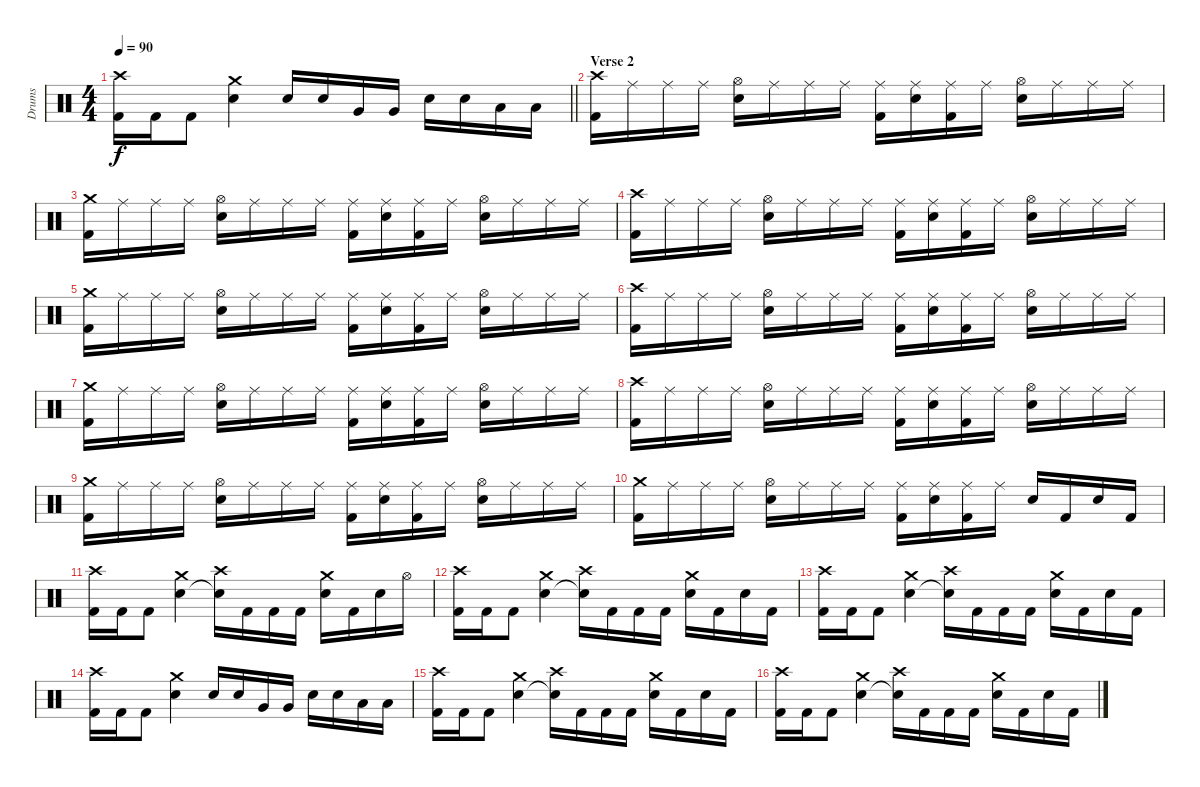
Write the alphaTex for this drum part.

\track ("Drums" "Drums") {instrument percussion}
\staff {score}
\articulation defaults
\ts (4 4)
\tempo 90
\clef neutral
\barLineRight lightlight
\ks c
("Kick (hit) 2" "Crash high (hit)").16{dy f} "Kick (hit) 2".16 "Kick (hit) 2".8 ("Snare (hit) 2" "Crash medium (hit)").4 "Snare (hit) 2".16 "Snare (hit) 2".16 "Very Low Tom (hit)".16 "Very Low Tom (hit)".16 "Snare (hit) 2".16 "Snare (hit) 2".16 "Low Floor Tom (hit)".16 "Low Floor Tom (hit)".16 |
\section ("" "Verse 2")
("Crash high (hit)" "Kick (hit) 2").16 "Ride (middle)".16 "Ride (middle)".16 "Ride (middle)".16 ("Hi-Hat (open)" "Snare (hit) 2").16 "Ride (middle)".16 "Ride (middle)".16 "Ride (middle)".16 ("Ride (middle)" "Kick (hit) 2").16 ("Ride (middle)" "Snare (hit) 2").16 ("Ride (middle)" "Kick (hit) 2").16 "Ride (middle)".16 ("Hi-Hat (open)" "Snare (hit) 2").16 "Ride (middle)".16 "Ride (middle)".16 "Ride (middle)".16 |
("Crash medium (hit)" "Kick (hit) 2").16 "Ride (middle)".16 "Ride (middle)".16 "Ride (middle)".16 ("Hi-Hat (open)" "Snare (hit) 2").16 "Ride (middle)".16 "Ride (middle)".16 "Ride (middle)".16 ("Ride (middle)" "Kick (hit) 2").16 ("Ride (middle)" "Snare (hit) 2").16 ("Ride (middle)" "Kick (hit) 2").16 "Ride (middle)".16 ("Hi-Hat (open)" "Snare (hit) 2").16 "Ride (middle)".16 "Ride (middle)".16 "Ride (middle)".16 |
("Crash high (hit)" "Kick (hit) 2").16 "Ride (middle)".16 "Ride (middle)".16 "Ride (middle)".16 ("Hi-Hat (open)" "Snare (hit) 2").16 "Ride (middle)".16 "Ride (middle)".16 "Ride (middle)".16 ("Ride (middle)" "Kick (hit) 2").16 ("Ride (middle)" "Snare (hit) 2").16 ("Ride (middle)" "Kick (hit) 2").16 "Ride (middle)".16 ("Hi-Hat (open)" "Snare (hit) 2").16 "Ride (middle)".16 "Ride (middle)".16 "Ride (middle)".16 |
("Crash medium (hit)" "Kick (hit) 2").16 "Ride (middle)".16 "Ride (middle)".16 "Ride (middle)".16 ("Hi-Hat (open)" "Snare (hit) 2").16 "Ride (middle)".16 "Ride (middle)".16 "Ride (middle)".16 ("Ride (middle)" "Kick (hit) 2").16 ("Ride (middle)" "Snare (hit) 2").16 ("Ride (middle)" "Kick (hit) 2").16 "Ride (middle)".16 ("Hi-Hat (open)" "Snare (hit) 2").16 "Ride (middle)".16 "Ride (middle)".16 "Ride (middle)".16 |
("Crash high (hit)" "Kick (hit) 2").16 "Ride (middle)".16 "Ride (middle)".16 "Ride (middle)".16 ("Hi-Hat (open)" "Snare (hit) 2").16 "Ride (middle)".16 "Ride (middle)".16 "Ride (middle)".16 ("Ride (middle)" "Kick (hit) 2").16 ("Ride (middle)" "Snare (hit) 2").16 ("Ride (middle)" "Kick (hit) 2").16 "Ride (middle)".16 ("Hi-Hat (open)" "Snare (hit) 2").16 "Ride (middle)".16 "Ride (middle)".16 "Ride (middle)".16 |
("Crash medium (hit)" "Kick (hit) 2").16 "Ride (middle)".16 "Ride (middle)".16 "Ride (middle)".16 ("Hi-Hat (open)" "Snare (hit) 2").16 "Ride (middle)".16 "Ride (middle)".16 "Ride (middle)".16 ("Ride (middle)" "Kick (hit) 2").16 ("Ride (middle)" "Snare (hit) 2").16 ("Ride (middle)" "Kick (hit) 2").16 "Ride (middle)".16 ("Hi-Hat (open)" "Snare (hit) 2").16 "Ride (middle)".16 "Ride (middle)".16 "Ride (middle)".16 |
("Crash high (hit)" "Kick (hit) 2").16 "Ride (middle)".16 "Ride (middle)".16 "Ride (middle)".16 ("Hi-Hat (open)" "Snare (hit) 2").16 "Ride (middle)".16 "Ride (middle)".16 "Ride (middle)".16 ("Ride (middle)" "Kick (hit) 2").16 ("Ride (middle)" "Snare (hit) 2").16 ("Ride (middle)" "Kick (hit) 2").16 "Ride (middle)".16 ("Hi-Hat (open)" "Snare (hit) 2").16 "Ride (middle)".16 "Ride (middle)".16 "Ride (middle)".16 |
("Crash medium (hit)" "Kick (hit) 2").16 "Ride (middle)".16 "Ride (middle)".16 "Ride (middle)".16 ("Hi-Hat (open)" "Snare (hit) 2").16 "Ride (middle)".16 "Ride (middle)".16 "Ride (middle)".16 ("Ride (middle)" "Kick (hit) 2").16 ("Ride (middle)" "Snare (hit) 2").16 ("Ride (middle)" "Kick (hit) 2").16 "Ride (middle)".16 ("Hi-Hat (open)" "Snare (hit) 2").16 "Ride (middle)".16 "Ride (middle)".16 "Ride (middle)".16 |
("Crash medium (hit)" "Kick (hit) 2").16 "Ride (middle)".16 "Ride (middle)".16 "Ride (middle)".16 ("Hi-Hat (open)" "Snare (hit) 2").16 "Ride (middle)".16 "Ride (middle)".16 "Ride (middle)".16 ("Ride (middle)" "Kick (hit) 2").16 ("Ride (middle)" "Snare (hit) 2").16 ("Ride (middle)" "Kick (hit) 2").16 "Ride (middle)".16 "Snare (hit) 2".16 "Kick (hit) 2".16 "Snare (hit) 2".16 "Kick (hit) 2".16 |
("Kick (hit) 2" "Crash high (hit)").16 "Kick (hit) 2".16 "Kick (hit) 2".8 ("Snare (hit) 2" "Crash medium (hit)").4 ("Snare (hit)"{t} "Crash high (hit)").16 "Kick (hit) 2".16 "Kick (hit) 2".16 "Kick (hit) 2".16 ("Snare (hit) 2" "Crash medium (hit)").16 "Kick (hit) 2".16 "Snare (hit) 2".16 "Hi-Hat (open)".16 |
("Kick (hit) 2" "Crash high (hit)").16 "Kick (hit) 2".16 "Kick (hit) 2".8 ("Snare (hit) 2" "Crash medium (hit)").4 ("Snare (hit)"{t} "Crash high (hit)").16 "Kick (hit) 2".16 "Kick (hit) 2".16 "Kick (hit) 2".16 ("Snare (hit) 2" "Crash medium (hit)").16 "Kick (hit) 2".16 "Snare (hit) 2".16 "Kick (hit) 2".16 |
("Kick (hit) 2" "Crash high (hit)").16 "Kick (hit) 2".16 "Kick (hit) 2".8 ("Snare (hit) 2" "Crash medium (hit)").4 ("Snare (hit)"{t} "Crash high (hit)").16 "Kick (hit) 2".16 "Kick (hit) 2".16 "Kick (hit) 2".16 ("Snare (hit) 2" "Crash medium (hit)").16 "Kick (hit) 2".16 "Snare (hit) 2".16 "Kick (hit) 2".16 |
("Kick (hit) 2" "Crash high (hit)").16 "Kick (hit) 2".16 "Kick (hit) 2".8 ("Snare (hit) 2" "Crash medium (hit)").4 "Snare (hit) 2".16 "Snare (hit) 2".16 "Very Low Tom (hit)".16 "Very Low Tom (hit)".16 "Snare (hit) 2".16 "Snare (hit) 2".16 "Low Floor Tom (hit)".16 "Low Floor Tom (hit)".16 |
("Kick (hit) 2" "Crash high (hit)").16 "Kick (hit) 2".16 "Kick (hit) 2".8 ("Snare (hit) 2" "Crash medium (hit)").4 ("Snare (hit)"{t} "Crash high (hit)").16 "Kick (hit) 2".16 "Kick (hit) 2".16 "Kick (hit) 2".16 ("Snare (hit) 2" "Crash medium (hit)").16 "Kick (hit) 2".16 "Snare (hit) 2".16 "Kick (hit) 2".16 |
("Kick (hit) 2" "Crash high (hit)").16 "Kick (hit) 2".16 "Kick (hit) 2".8 ("Snare (hit) 2" "Crash medium (hit)").4 ("Snare (hit)"{t} "Crash high (hit)").16 "Kick (hit) 2".16 "Kick (hit) 2".16 "Kick (hit) 2".16 ("Snare (hit) 2" "Crash medium (hit)").16 "Kick (hit) 2".16 "Snare (hit) 2".16 "Kick (hit) 2".16
